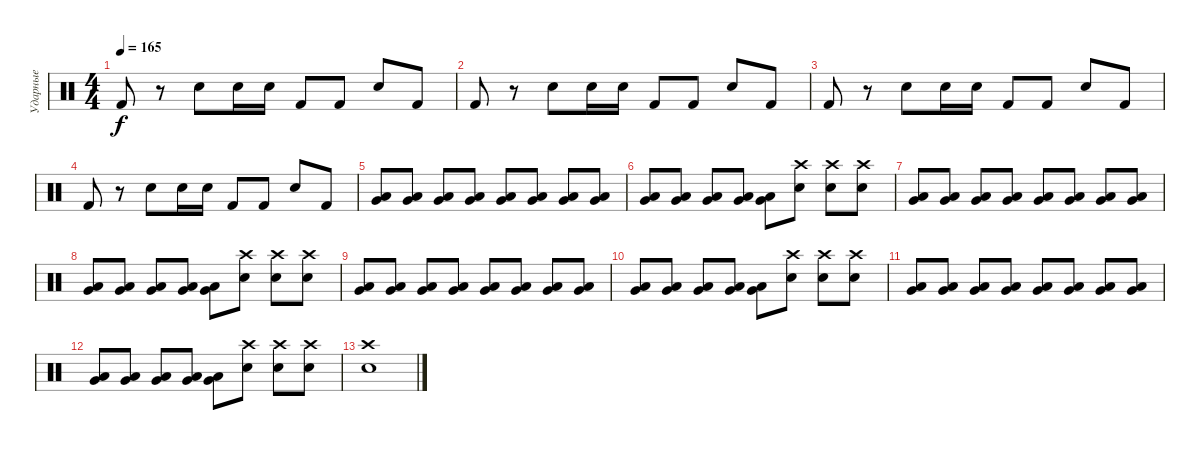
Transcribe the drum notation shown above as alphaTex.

\track ("Ударные" "Ударные") {instrument percussion}
\staff {score}
\articulation defaults
\ts (4 4)
\tempo 165
\clef neutral
\ks c "Kick (hit) 2".8{dy f}
r.8 "Electric Snare (hit)".8 "Electric Snare (hit)".16 "Electric Snare (hit)".16 "Kick (hit) 2".8 "Kick (hit) 2".8 "Electric Snare (hit)".8 "Kick (hit) 2".8 |
"Kick (hit) 2".8 r.8 "Electric Snare (hit)".8 "Electric Snare (hit)".16 "Electric Snare (hit)".16 "Kick (hit) 2".8 "Kick (hit) 2".8 "Electric Snare (hit)".8 "Kick (hit) 2".8 |
"Kick (hit) 2".8 r.8 "Electric Snare (hit)".8 "Electric Snare (hit)".16 "Electric Snare (hit)".16 "Kick (hit) 2".8 "Kick (hit) 2".8 "Electric Snare (hit)".8 "Kick (hit) 2".8 |
"Kick (hit) 2".8 r.8 "Electric Snare (hit)".8 "Electric Snare (hit)".16 "Electric Snare (hit)".16 "Kick (hit) 2".8 "Kick (hit) 2".8 "Electric Snare (hit)".8 "Kick (hit) 2".8 |
("Very Low Tom (hit)" "Low Floor Tom (hit)").8 ("Very Low Tom (hit)" "Low Floor Tom (hit)").8 ("Very Low Tom (hit)" "Low Floor Tom (hit)").8 ("Very Low Tom (hit)" "Low Floor Tom (hit)").8 ("Very Low Tom (hit)" "Low Floor Tom (hit)").8 ("Very Low Tom (hit)" "Low Floor Tom (hit)").8 ("Very Low Tom (hit)" "Low Floor Tom (hit)").8 ("Very Low Tom (hit)" "Low Floor Tom (hit)").8 |
("Very Low Tom (hit)" "Low Floor Tom (hit)").8 ("Very Low Tom (hit)" "Low Floor Tom (hit)").8 ("Very Low Tom (hit)" "Low Floor Tom (hit)").8 ("Very Low Tom (hit)" "Low Floor Tom (hit)").8 ("Very Low Tom (hit)" "Low Floor Tom (hit)").8 ("Crash high (hit)" "Electric Snare (hit)").8 ("Crash high (hit)" "Electric Snare (hit)").8 ("Crash high (hit)" "Electric Snare (hit)").8 |
("Very Low Tom (hit)" "Low Floor Tom (hit)").8 ("Very Low Tom (hit)" "Low Floor Tom (hit)").8 ("Very Low Tom (hit)" "Low Floor Tom (hit)").8 ("Very Low Tom (hit)" "Low Floor Tom (hit)").8 ("Very Low Tom (hit)" "Low Floor Tom (hit)").8 ("Very Low Tom (hit)" "Low Floor Tom (hit)").8 ("Very Low Tom (hit)" "Low Floor Tom (hit)").8 ("Very Low Tom (hit)" "Low Floor Tom (hit)").8 |
("Very Low Tom (hit)" "Low Floor Tom (hit)").8 ("Very Low Tom (hit)" "Low Floor Tom (hit)").8 ("Very Low Tom (hit)" "Low Floor Tom (hit)").8 ("Very Low Tom (hit)" "Low Floor Tom (hit)").8 ("Very Low Tom (hit)" "Low Floor Tom (hit)").8 ("Crash high (hit)" "Electric Snare (hit)").8 ("Crash high (hit)" "Electric Snare (hit)").8 ("Crash high (hit)" "Electric Snare (hit)").8 |
("Very Low Tom (hit)" "Low Floor Tom (hit)").8 ("Very Low Tom (hit)" "Low Floor Tom (hit)").8 ("Very Low Tom (hit)" "Low Floor Tom (hit)").8 ("Very Low Tom (hit)" "Low Floor Tom (hit)").8 ("Very Low Tom (hit)" "Low Floor Tom (hit)").8 ("Very Low Tom (hit)" "Low Floor Tom (hit)").8 ("Very Low Tom (hit)" "Low Floor Tom (hit)").8 ("Very Low Tom (hit)" "Low Floor Tom (hit)").8 |
("Very Low Tom (hit)" "Low Floor Tom (hit)").8 ("Very Low Tom (hit)" "Low Floor Tom (hit)").8 ("Very Low Tom (hit)" "Low Floor Tom (hit)").8 ("Very Low Tom (hit)" "Low Floor Tom (hit)").8 ("Very Low Tom (hit)" "Low Floor Tom (hit)").8 ("Crash high (hit)" "Electric Snare (hit)").8 ("Crash high (hit)" "Electric Snare (hit)").8 ("Crash high (hit)" "Electric Snare (hit)").8 |
("Very Low Tom (hit)" "Low Floor Tom (hit)").8 ("Very Low Tom (hit)" "Low Floor Tom (hit)").8 ("Very Low Tom (hit)" "Low Floor Tom (hit)").8 ("Very Low Tom (hit)" "Low Floor Tom (hit)").8 ("Very Low Tom (hit)" "Low Floor Tom (hit)").8 ("Very Low Tom (hit)" "Low Floor Tom (hit)").8 ("Very Low Tom (hit)" "Low Floor Tom (hit)").8 ("Very Low Tom (hit)" "Low Floor Tom (hit)").8 |
("Very Low Tom (hit)" "Low Floor Tom (hit)").8 ("Very Low Tom (hit)" "Low Floor Tom (hit)").8 ("Very Low Tom (hit)" "Low Floor Tom (hit)").8 ("Very Low Tom (hit)" "Low Floor Tom (hit)").8 ("Very Low Tom (hit)" "Low Floor Tom (hit)").8 ("Crash high (hit)" "Electric Snare (hit)").8 ("Crash high (hit)" "Electric Snare (hit)").8 ("Crash high (hit)" "Electric Snare (hit)").8 |
("Crash high (hit)" "Electric Snare (hit)").1
